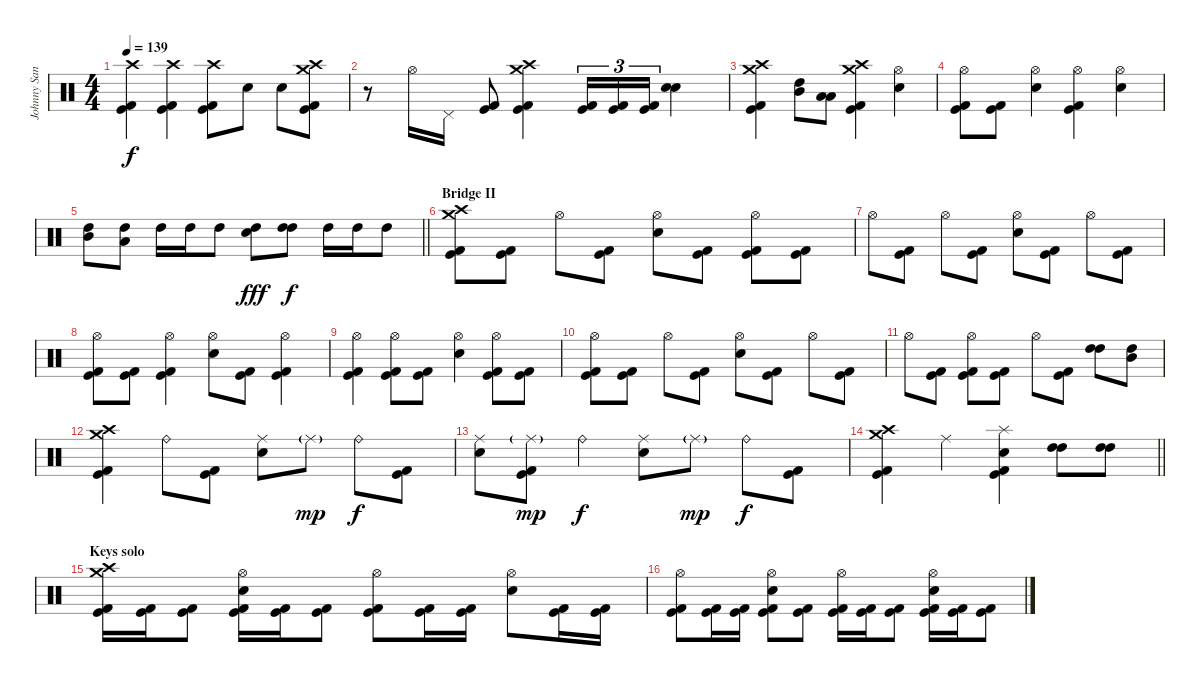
\track ("Johnny Sandin" "Johnny San") {instrument percussion}
\staff {score}
\articulation defaults
\ts (4 4)
\tempo 139
\clef neutral
\ks c
("Crash high (hit)" "Kick (hit) 2" "Kick (hit)").4{dy f} ("Crash high (hit)" "Kick (hit) 2" "Kick (hit)").4 ("Crash high (hit)" "Kick (hit) 2" "Kick (hit)").8 "Snare (hit) 2".8 "Snare (hit) 2".8 ("Crash medium (hit)" "Crash high (hit)" "Kick (hit)" "Kick (hit) 2").8 |
r.8 "Hi-Hat (open)".16 "Pedal Hi-Hat (hit)".16 ("Kick (hit) 2" "Kick (hit)").8 ("Crash medium (hit)" "Crash high (hit)" "Kick (hit) 2" "Kick (hit)").4 ("Kick (hit)" "Kick (hit) 2").16{tu (3 2)} ("Kick (hit)" "Kick (hit) 2").16{tu (3 2)} ("Kick (hit)" "Kick (hit) 2").16{tu (3 2)} ("Snare (hit) 2" "Snare (hit) 2").4 |
("Crash medium (hit)" "Crash high (hit)" "Kick (hit) 2" "Kick (hit)").4 ("Mid Tom (hit)" "High Tom (hit)").8 ("Low Tom (hit)" "Low Tom (hit)").8 ("Crash medium (hit)" "Crash high (hit)" "Kick (hit) 2" "Kick (hit)").4 ("Hi-Hat (open)" "Snare (hit) 2").4 |
("Hi-Hat (open)" "Kick (hit) 2" "Kick (hit)").8 ("Kick (hit) 2" "Kick (hit)").8 ("Hi-Hat (open)" "Snare (hit) 2").4 ("Hi-Hat (open)" "Kick (hit) 2" "Kick (hit)").4 ("Hi-Hat (open)" "Snare (hit) 2").4 |
\barLineRight lightlight
("Mid Tom (hit)" "High Tom (hit)").8 ("Low Tom (hit)" "High Tom (hit)").8 "High Tom (hit)".16 "High Tom (hit)".16 "High Tom (hit)".8 ("High Tom (hit)" "Snare (hit) 2").8{dy fff} ("High Tom (hit)" "High Tom (hit)").8{dy f} "High Tom (hit)".16 "High Tom (hit)".16 "High Tom (hit)".8 |
\section ("" "Bridge II")
("Crash medium (hit)" "Crash high (hit)" "Kick (hit) 2" "Kick (hit)").8 ("Kick (hit) 2" "Kick (hit)").8 "Hi-Hat (open)".8 ("Kick (hit) 2" "Kick (hit)").8 ("Hi-Hat (open)" "Snare (hit) 2").8 ("Kick (hit) 2" "Kick (hit)").8 ("Hi-Hat (open)" "Kick (hit) 2" "Kick (hit)").8 ("Kick (hit) 2" "Kick (hit)").8 |
"Hi-Hat (open)".8 ("Kick (hit) 2" "Kick (hit)").8 "Hi-Hat (open)".8 ("Kick (hit) 2" "Kick (hit)").8 ("Hi-Hat (open)" "Snare (hit) 2").8 ("Kick (hit) 2" "Kick (hit)").8 "Hi-Hat (open)".8 ("Kick (hit) 2" "Kick (hit)").8 |
("Hi-Hat (open)" "Kick (hit) 2" "Kick (hit)").8 ("Kick (hit) 2" "Kick (hit)").8 ("Hi-Hat (open)" "Kick (hit) 2" "Kick (hit)").4 ("Hi-Hat (open)" "Snare (hit) 2").8 ("Kick (hit)" "Kick (hit) 2").8 ("Hi-Hat (open)" "Kick (hit)" "Kick (hit) 2").4 |
("Hi-Hat (open)" "Kick (hit) 2" "Kick (hit)").4 ("Hi-Hat (open)" "Kick (hit) 2" "Kick (hit)").8 ("Kick (hit) 2" "Kick (hit)").8 ("Hi-Hat (open)" "Snare (hit) 2").4 ("Hi-Hat (open)" "Kick (hit) 2" "Kick (hit)").8 ("Kick (hit) 2" "Kick (hit)").8 |
("Hi-Hat (open)" "Kick (hit) 2" "Kick (hit)").8 ("Kick (hit) 2" "Kick (hit)").8 "Hi-Hat (open)".8 ("Kick (hit) 2" "Kick (hit)").8 ("Hi-Hat (open)" "Snare (hit) 2").8 ("Kick (hit) 2" "Kick (hit)").8 "Hi-Hat (open)".8 ("Kick (hit) 2" "Kick (hit)").8 |
"Hi-Hat (open)".8 ("Kick (hit) 2" "Kick (hit)").8 ("Hi-Hat (open)" "Kick (hit) 2" "Kick (hit)").8 ("Kick (hit) 2" "Kick (hit)").8 "Hi-Hat (open)".8 ("Kick (hit) 2" "Kick (hit)").8 ("High Tom (hit)" "High Tom (hit)").8 ("High Tom (hit)" "Mid Tom (hit)").8 |
("Crash medium (hit)" "Crash high (hit)" "Kick (hit) 2" "Kick (hit)").4 "Ride (bell)".8 ("Kick (hit) 2" "Kick (hit)").8 ("Ride (middle)" "Snare (hit) 2").8 "Ride (middle)"{g}.8{dy mp} "Ride (bell)".8{dy f} ("Kick (hit) 2" "Kick (hit)").8 |
("Ride (middle)" "Snare (hit) 2").8 ("Ride (middle)"{g} "Kick (hit) 2" "Kick (hit)").8{dy mp} "Ride (bell)".4{dy f} ("Ride (middle)" "Snare (hit) 2").8 "Ride (middle)"{g}.8{dy mp} "Ride (bell)".8{dy f} ("Kick (hit)" "Kick (hit) 2").8 |
\barLineRight lightlight
("Crash medium (hit)" "Crash high (hit)" "Kick (hit)" "Kick (hit) 2").4 "Ride (middle)".4 ("Splash (hit)" "Snare (hit) 2" "Kick (hit) 2" "Kick (hit)").4 ("High Tom (hit)" "High Tom (hit)").8 ("High Tom (hit)" "High Tom (hit)").8 |
\section ("" "Keys solo")
("Crash medium (hit)" "Crash high (hit)" "Kick (hit) 2" "Kick (hit)").16 ("Kick (hit) 2" "Kick (hit)").16 ("Kick (hit) 2" "Kick (hit)").8 ("Hi-Hat (open)" "Snare (hit) 2" "Kick (hit) 2" "Kick (hit)").16 ("Kick (hit) 2" "Kick (hit)").16 ("Kick (hit) 2" "Kick (hit)").8 ("Hi-Hat (open)" "Kick (hit) 2" "Kick (hit)").8 ("Kick (hit) 2" "Kick (hit)").16 ("Kick (hit) 2" "Kick (hit)").16 ("Hi-Hat (open)" "Snare (hit) 2").8 ("Kick (hit) 2" "Kick (hit)").16 ("Kick (hit) 2" "Kick (hit)").16 |
("Hi-Hat (open)" "Kick (hit) 2" "Kick (hit)").8 ("Kick (hit) 2" "Kick (hit)").16 ("Kick (hit) 2" "Kick (hit)").16 ("Hi-Hat (open)" "Snare (hit) 2" "Kick (hit) 2" "Kick (hit)").8 ("Kick (hit) 2" "Kick (hit)").8 ("Hi-Hat (open)" "Kick (hit) 2" "Kick (hit)").16 ("Kick (hit) 2" "Kick (hit)").16 ("Kick (hit) 2" "Kick (hit)").8 ("Hi-Hat (open)" "Snare (hit) 2" "Kick (hit) 2" "Kick (hit)").16 ("Kick (hit) 2" "Kick (hit)").16 ("Kick (hit) 2" "Kick (hit)").8
